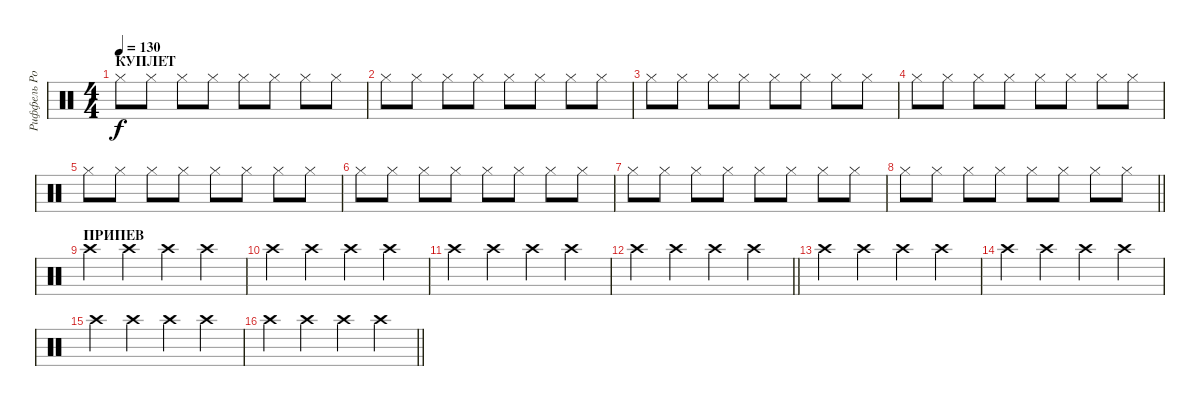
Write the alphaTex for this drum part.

\track ("Риффель Роман(хэты)" "Риффель Ро") {instrument percussion}
\staff {score}
\articulation defaults
\ts (4 4)
\section ("" "КУПЛЕТ")
\tempo 130
\clef neutral
\ks c "Hi-Hat (closed)".8{dy f} "Hi-Hat (closed)".8 "Hi-Hat (closed)".8 "Hi-Hat (closed)".8 "Hi-Hat (closed)".8 "Hi-Hat (closed)".8 "Hi-Hat (closed)".8 "Hi-Hat (closed)".8
|
"Hi-Hat (closed)".8 "Hi-Hat (closed)".8 "Hi-Hat (closed)".8 "Hi-Hat (closed)".8 "Hi-Hat (closed)".8 "Hi-Hat (closed)".8 "Hi-Hat (closed)".8 "Hi-Hat (closed)".8 |
"Hi-Hat (closed)".8 "Hi-Hat (closed)".8 "Hi-Hat (closed)".8 "Hi-Hat (closed)".8 "Hi-Hat (closed)".8 "Hi-Hat (closed)".8 "Hi-Hat (closed)".8 "Hi-Hat (closed)".8 |
"Hi-Hat (closed)".8 "Hi-Hat (closed)".8 "Hi-Hat (closed)".8 "Hi-Hat (closed)".8 "Hi-Hat (closed)".8 "Hi-Hat (closed)".8 "Hi-Hat (closed)".8 "Hi-Hat (closed)".8 |
"Hi-Hat (closed)".8 "Hi-Hat (closed)".8 "Hi-Hat (closed)".8 "Hi-Hat (closed)".8 "Hi-Hat (closed)".8 "Hi-Hat (closed)".8 "Hi-Hat (closed)".8 "Hi-Hat (closed)".8 |
"Hi-Hat (closed)".8 "Hi-Hat (closed)".8 "Hi-Hat (closed)".8 "Hi-Hat (closed)".8 "Hi-Hat (closed)".8 "Hi-Hat (closed)".8 "Hi-Hat (closed)".8 "Hi-Hat (closed)".8 |
"Hi-Hat (closed)".8 "Hi-Hat (closed)".8 "Hi-Hat (closed)".8 "Hi-Hat (closed)".8 "Hi-Hat (closed)".8 "Hi-Hat (closed)".8 "Hi-Hat (closed)".8 "Hi-Hat (closed)".8 |
\barLineRight lightlight "Hi-Hat (closed)".8 "Hi-Hat (closed)".8 "Hi-Hat (closed)".8 "Hi-Hat (closed)".8 "Hi-Hat (closed)".8 "Hi-Hat (closed)".8 "Hi-Hat (closed)".8 "Hi-Hat (closed)".8
|
\section ("" "ПРИПЕВ")
"Crash high (hit)".4 "Crash high (hit)".4 "Crash high (hit)".4 "Crash high (hit)".4 |
"Crash high (hit)".4 "Crash high (hit)".4 "Crash high (hit)".4 "Crash high (hit)".4 |
"Crash high (hit)".4 "Crash high (hit)".4 "Crash high (hit)".4 "Crash high (hit)".4 |
\barLineRight lightlight "Crash high (hit)".4 "Crash high (hit)".4 "Crash high (hit)".4 "Crash high (hit)".4
|
"Crash high (hit)".4 "Crash high (hit)".4 "Crash high (hit)".4 "Crash high (hit)".4 |
"Crash high (hit)".4 "Crash high (hit)".4 "Crash high (hit)".4 "Crash high (hit)".4 |
"Crash high (hit)".4 "Crash high (hit)".4 "Crash high (hit)".4 "Crash high (hit)".4 |
\barLineRight lightlight "Crash high (hit)".4 "Crash high (hit)".4 "Crash high (hit)".4 "Crash high (hit)".4
